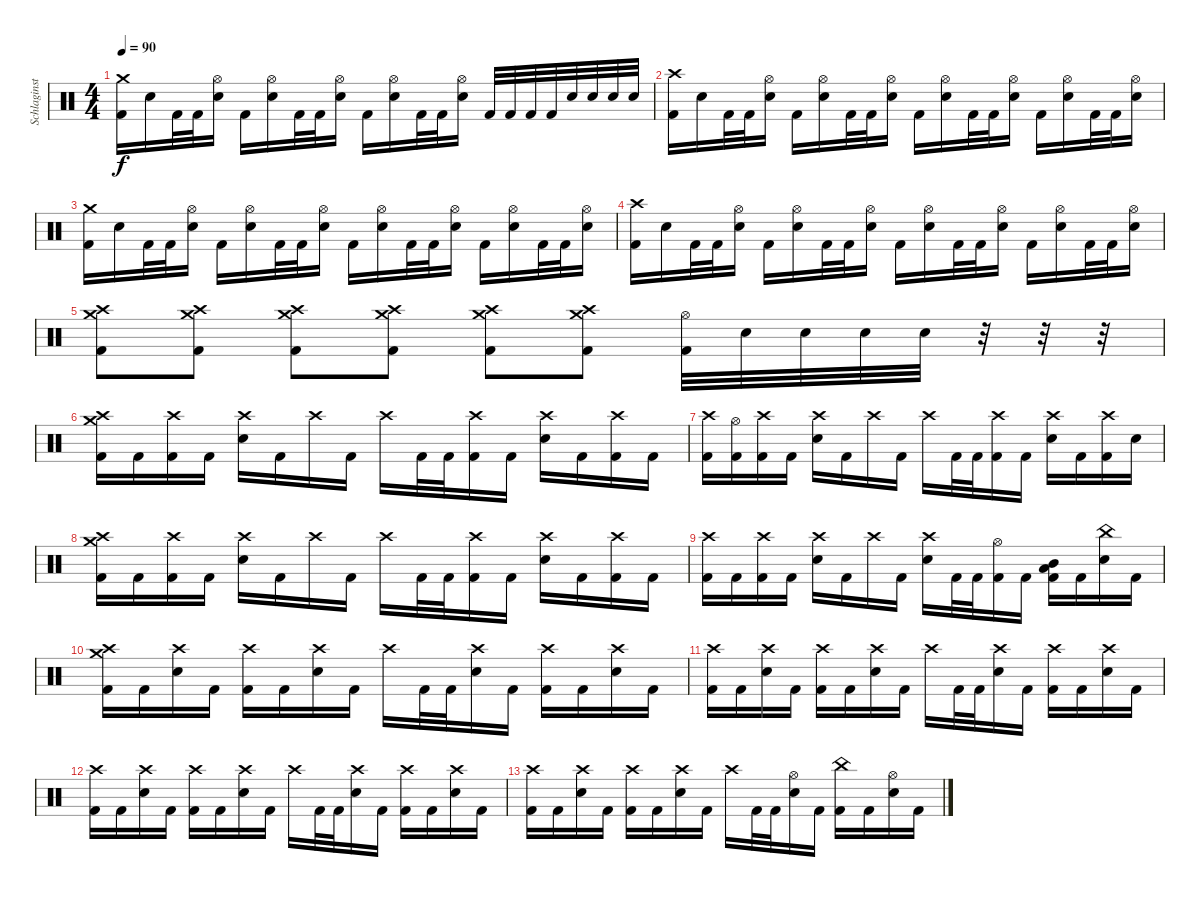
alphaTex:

\track ("Schlaginstrumente - Auswahl" "Schlaginst") {instrument percussion}
\staff {score}
\articulation defaults
\ts (4 4)
\tempo 90
\clef neutral
\ks c
("Crash medium (hit)" "Kick (hit) 2").16{dy f} "Electric Snare (hit)".16 "Kick (hit) 2".32 "Kick (hit) 2".32 ("Hi-Hat (open)" "Electric Snare (hit)").16 "Kick (hit) 2".16 ("Hi-Hat (open)" "Electric Snare (hit)").16 "Kick (hit) 2".32 "Kick (hit) 2".32 ("Hi-Hat (open)" "Electric Snare (hit)").16 "Kick (hit) 2".16 ("Hi-Hat (open)" "Electric Snare (hit)").16 "Kick (hit) 2".32 "Kick (hit) 2".32 ("Hi-Hat (open)" "Electric Snare (hit)").16 "Kick (hit) 2".32 "Kick (hit) 2".32 "Kick (hit) 2".32 "Kick (hit) 2".32 "Electric Snare (hit)".32 "Electric Snare (hit)".32 "Electric Snare (hit)".32 "Electric Snare (hit)".32 |
("Crash high (hit)" "Kick (hit) 2").16 "Electric Snare (hit)".16 "Kick (hit) 2".32 "Kick (hit) 2".32 ("Hi-Hat (open)" "Electric Snare (hit)").16 "Kick (hit) 2".16 ("Hi-Hat (open)" "Electric Snare (hit)").16 "Kick (hit) 2".32 "Kick (hit) 2".32 ("Hi-Hat (open)" "Electric Snare (hit)").16 "Kick (hit) 2".16 ("Hi-Hat (open)" "Electric Snare (hit)").16 "Kick (hit) 2".32 "Kick (hit) 2".32 ("Hi-Hat (open)" "Electric Snare (hit)").16 "Kick (hit) 2".16 ("Hi-Hat (open)" "Electric Snare (hit)").16 "Kick (hit) 2".32 "Kick (hit) 2".32 ("Hi-Hat (open)" "Electric Snare (hit)").16 |
("Crash medium (hit)" "Kick (hit) 2").16 "Electric Snare (hit)".16 "Kick (hit) 2".32 "Kick (hit) 2".32 ("Hi-Hat (open)" "Electric Snare (hit)").16 "Kick (hit) 2".16 ("Hi-Hat (open)" "Electric Snare (hit)").16 "Kick (hit) 2".32 "Kick (hit) 2".32 ("Hi-Hat (open)" "Electric Snare (hit)").16 "Kick (hit) 2".16 ("Hi-Hat (open)" "Electric Snare (hit)").16 "Kick (hit) 2".32 "Kick (hit) 2".32 ("Hi-Hat (open)" "Electric Snare (hit)").16 "Kick (hit) 2".16 ("Hi-Hat (open)" "Electric Snare (hit)").16 "Kick (hit) 2".32 "Kick (hit) 2".32 ("Hi-Hat (open)" "Electric Snare (hit)").16 |
("Crash high (hit)" "Kick (hit) 2").16 "Electric Snare (hit)".16 "Kick (hit) 2".32 "Kick (hit) 2".32 ("Hi-Hat (open)" "Electric Snare (hit)").16 "Kick (hit) 2".16 ("Hi-Hat (open)" "Electric Snare (hit)").16 "Kick (hit) 2".32 "Kick (hit) 2".32 ("Hi-Hat (open)" "Electric Snare (hit)").16 "Kick (hit) 2".16 ("Hi-Hat (open)" "Electric Snare (hit)").16 "Kick (hit) 2".32 "Kick (hit) 2".32 ("Hi-Hat (open)" "Electric Snare (hit)").16 "Kick (hit) 2".16 ("Hi-Hat (open)" "Electric Snare (hit)").16 "Kick (hit) 2".32 "Kick (hit) 2".32 ("Hi-Hat (open)" "Electric Snare (hit)").16 |
("Crash high (hit)" "Crash medium (hit)" "Kick (hit) 2").8 ("Crash high (hit)" "Crash medium (hit)" "Kick (hit) 2").8 ("Crash high (hit)" "Crash medium (hit)" "Kick (hit) 2").8 ("Crash high (hit)" "Crash medium (hit)" "Kick (hit) 2").8 ("Crash high (hit)" "Crash medium (hit)" "Kick (hit) 2").8 ("Crash high (hit)" "Crash medium (hit)" "Kick (hit) 2").8 ("Hi-Hat (open)" "Kick (hit) 2").32 "Electric Snare (hit)".32 "Electric Snare (hit)".32 "Electric Snare (hit)".32 "Electric Snare (hit)".32 r.32 r.32 r.32 |
("Crash high (hit)" "Crash medium (hit)" "Kick (hit) 2").16 "Kick (hit) 2".16 ("Crash high (hit)" "Kick (hit) 2").16 "Kick (hit) 2".16 ("Crash high (hit)" "Electric Snare (hit)").16 "Kick (hit) 2".16 "Crash high (hit)".16 "Kick (hit) 2".16 "Crash high (hit)".16 "Kick (hit) 2".32 "Kick (hit) 2".32 ("Crash high (hit)" "Kick (hit) 2").16 "Kick (hit) 2".16 ("Crash high (hit)" "Electric Snare (hit)").16 "Kick (hit) 2".16 ("Crash high (hit)" "Kick (hit) 2").16 "Kick (hit) 2".16 |
("Crash high (hit)" "Kick (hit) 2").16 ("Hi-Hat (open)" "Kick (hit) 2").16 ("Crash high (hit)" "Kick (hit) 2").16 "Kick (hit) 2".16 ("Crash high (hit)" "Electric Snare (hit)").16 "Kick (hit) 2".16 "Crash high (hit)".16 "Kick (hit) 2".16 "Crash high (hit)".16 "Kick (hit) 2".32 "Kick (hit) 2".32 ("Crash high (hit)" "Kick (hit) 2").16 "Kick (hit) 2".16 ("Crash high (hit)" "Electric Snare (hit)").16 "Kick (hit) 2".16 ("Crash high (hit)" "Kick (hit) 2").16 "Electric Snare (hit)".16 |
("Crash high (hit)" "Crash medium (hit)" "Kick (hit) 2").16 "Kick (hit) 2".16 ("Crash high (hit)" "Kick (hit) 2").16 "Kick (hit) 2".16 ("Crash high (hit)" "Electric Snare (hit)").16 "Kick (hit) 2".16 "Crash high (hit)".16 "Kick (hit) 2".16 "Crash high (hit)".16 "Kick (hit) 2".32 "Kick (hit) 2".32 ("Crash high (hit)" "Kick (hit) 2").16 "Kick (hit) 2".16 ("Crash high (hit)" "Electric Snare (hit)").16 "Kick (hit) 2".16 ("Crash high (hit)" "Kick (hit) 2").16 "Kick (hit) 2".16 |
("Crash high (hit)" "Kick (hit) 2").16 "Kick (hit) 2".16 ("Crash high (hit)" "Kick (hit) 2").16 "Kick (hit) 2".16 ("Crash high (hit)" "Electric Snare (hit)").16 "Kick (hit) 2".16 "Crash high (hit)".16 "Kick (hit) 2".16 ("Crash high (hit)" "Electric Snare (hit)").16 "Kick (hit) 2".32 "Kick (hit) 2".32 ("Hi-Hat (open)" "Kick (hit) 2").16 "Kick (hit) 2".16 ("Mid Tom (hit)" "Low Tom (hit)" "Kick (hit) 2").16 "Kick (hit) 2".16 ("China (hit)" "Electric Snare (hit)").16 "Kick (hit) 2".16 |
("Crash high (hit)" "Crash medium (hit)" "Kick (hit) 2").16 "Kick (hit) 2".16 ("Crash high (hit)" "Electric Snare (hit)").16 "Kick (hit) 2".16 ("Crash high (hit)" "Kick (hit) 2").16 "Kick (hit) 2".16 ("Crash high (hit)" "Electric Snare (hit)").16 "Kick (hit) 2".16 "Crash high (hit)".16 "Kick (hit) 2".32 "Kick (hit) 2".32 ("Crash high (hit)" "Electric Snare (hit)").16 "Kick (hit) 2".16 ("Crash high (hit)" "Kick (hit) 2").16 "Kick (hit) 2".16 ("Crash high (hit)" "Electric Snare (hit)").16 "Kick (hit) 2".16 |
("Crash high (hit)" "Kick (hit) 2").16 "Kick (hit) 2".16 ("Crash high (hit)" "Electric Snare (hit)").16 "Kick (hit) 2".16 ("Crash high (hit)" "Kick (hit) 2").16 "Kick (hit) 2".16 ("Crash high (hit)" "Electric Snare (hit)").16 "Kick (hit) 2".16 "Crash high (hit)".16 "Kick (hit) 2".32 "Kick (hit) 2".32 ("Crash high (hit)" "Electric Snare (hit)").16 "Kick (hit) 2".16 ("Crash high (hit)" "Kick (hit) 2").16 "Kick (hit) 2".16 ("Crash high (hit)" "Electric Snare (hit)").16 "Kick (hit) 2".16 |
("Crash high (hit)" "Kick (hit) 2").16 "Kick (hit) 2".16 ("Crash high (hit)" "Electric Snare (hit)").16 "Kick (hit) 2".16 ("Crash high (hit)" "Kick (hit) 2").16 "Kick (hit) 2".16 ("Crash high (hit)" "Electric Snare (hit)").16 "Kick (hit) 2".16 "Crash high (hit)".16 "Kick (hit) 2".32 "Kick (hit) 2".32 ("Crash high (hit)" "Electric Snare (hit)").16 "Kick (hit) 2".16 ("Crash high (hit)" "Kick (hit) 2").16 "Kick (hit) 2".16 ("Crash high (hit)" "Electric Snare (hit)").16 "Kick (hit) 2".16 |
("Crash high (hit)" "Kick (hit) 2").16 "Kick (hit) 2".16 ("Crash high (hit)" "Electric Snare (hit)").16 "Kick (hit) 2".16 ("Crash high (hit)" "Kick (hit) 2").16 "Kick (hit) 2".16 ("Crash high (hit)" "Electric Snare (hit)").16 "Kick (hit) 2".16 "Crash high (hit)".16 "Kick (hit) 2".32 "Kick (hit) 2".32 ("Hi-Hat (open)" "Electric Snare (hit)").16 "Kick (hit) 2".16 ("China (hit)" "Kick (hit) 2").16 "Kick (hit) 2".16 ("Hi-Hat (open)" "Electric Snare (hit)").16 "Kick (hit) 2".16
